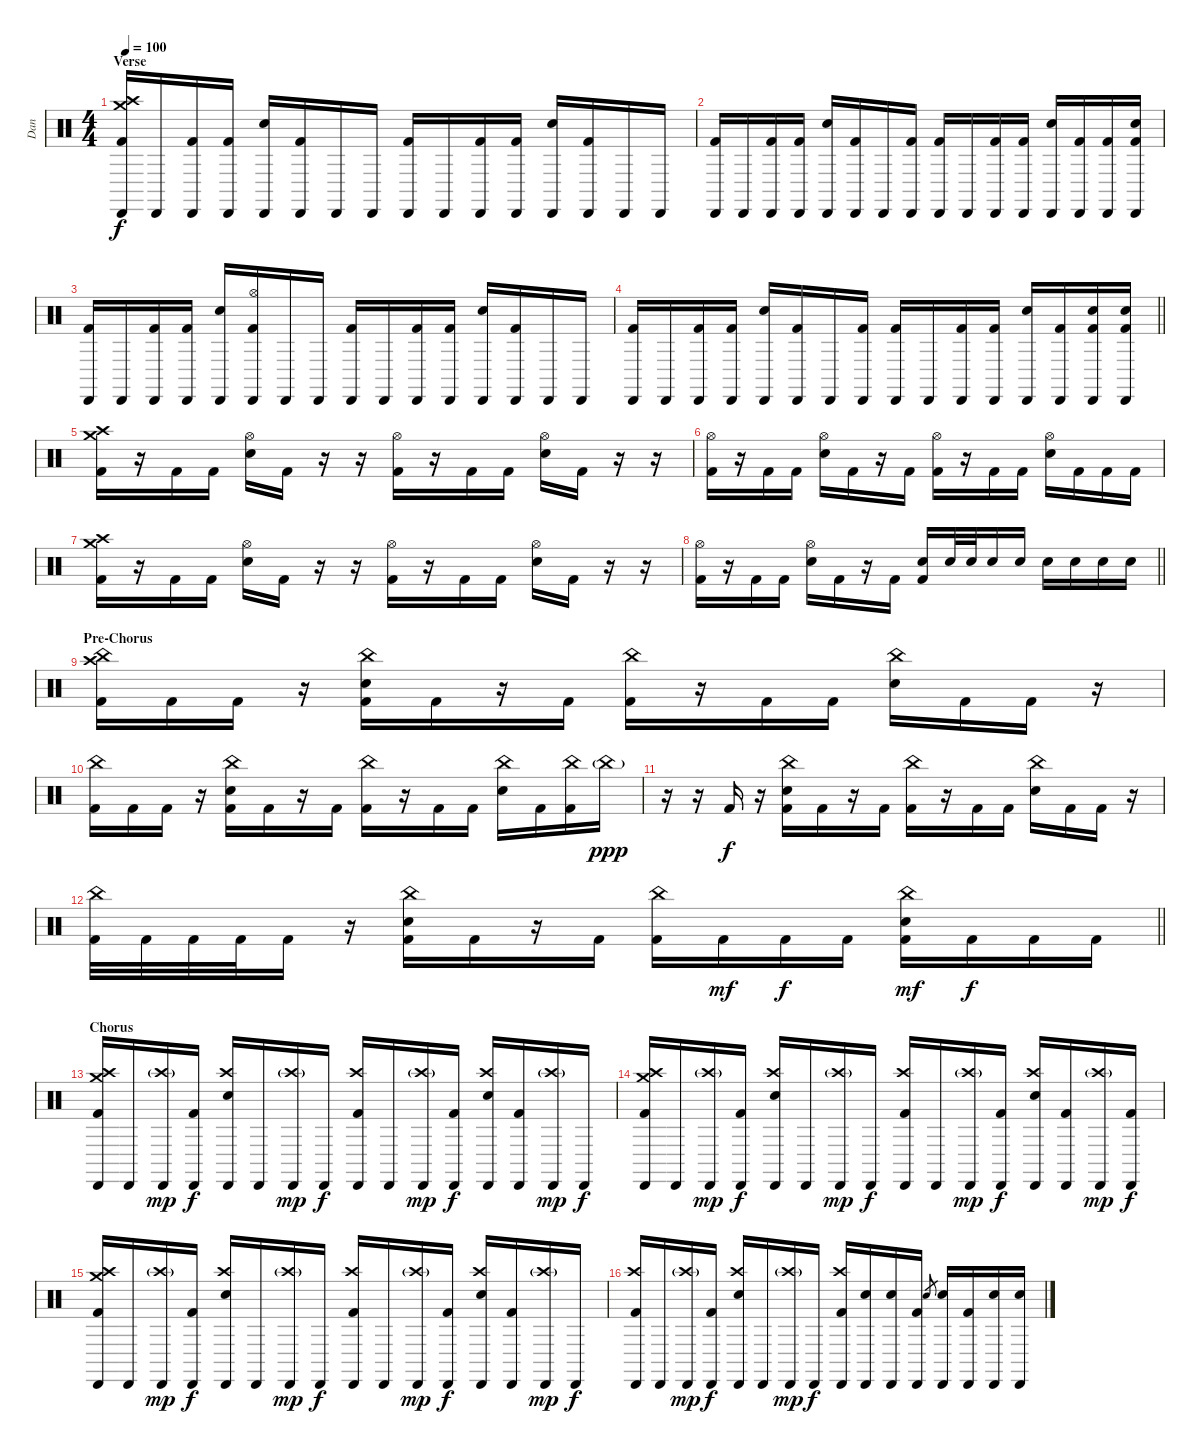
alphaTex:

\track ("Dan" "Dan") {instrument percussion}
\staff {score}
\articulation defaults
\ts (4 4)
\section ("" "Verse")
\tempo 100
\clef neutral
\ks c
("Cabasa (hit)" "Crash medium (hit)" "Crash high (hit)" "Kick (hit) 2").16{dy f} "Cabasa (hit)".16 ("Cabasa (hit)" "Kick (hit) 2").16 ("Cabasa (hit)" "Kick (hit) 2").16 ("Cabasa (hit)" "Snare (hit) 2").16 ("Cabasa (hit)" "Kick (hit) 2").16 "Cabasa (hit)".16 "Cabasa (hit)".16 ("Cabasa (hit)" "Kick (hit) 2").16 "Cabasa (hit)".16 ("Cabasa (hit)" "Kick (hit) 2").16 ("Cabasa (hit)" "Kick (hit) 2").16 ("Cabasa (hit)" "Snare (hit) 2").16 ("Cabasa (hit)" "Kick (hit) 2").16 "Cabasa (hit)".16 "Cabasa (hit)".16 |
("Cabasa (hit)" "Kick (hit) 2").16 "Cabasa (hit)".16 ("Cabasa (hit)" "Kick (hit) 2").16 ("Cabasa (hit)" "Kick (hit) 2").16 ("Cabasa (hit)" "Snare (hit) 2").16 ("Cabasa (hit)" "Kick (hit) 2").16 "Cabasa (hit)".16 ("Cabasa (hit)" "Kick (hit) 2").16 ("Cabasa (hit)" "Kick (hit) 2").16 "Cabasa (hit)".16 ("Cabasa (hit)" "Kick (hit) 2").16 ("Cabasa (hit)" "Kick (hit) 2").16 ("Cabasa (hit)" "Snare (hit) 2").16 ("Cabasa (hit)" "Kick (hit) 2").16 ("Cabasa (hit)" "Kick (hit) 2").16 ("Cabasa (hit)" "Snare (hit) 2" "Kick (hit) 2").16 |
("Cabasa (hit)" "Kick (hit) 2").16 "Cabasa (hit)".16 ("Cabasa (hit)" "Kick (hit) 2").16 ("Cabasa (hit)" "Kick (hit) 2").16 ("Cabasa (hit)" "Snare (hit) 2").16 ("Cabasa (hit)" "Hi-Hat (open)" "Kick (hit) 2").16 "Cabasa (hit)".16 "Cabasa (hit)".16 ("Cabasa (hit)" "Kick (hit) 2").16 "Cabasa (hit)".16 ("Cabasa (hit)" "Kick (hit) 2").16 ("Cabasa (hit)" "Kick (hit) 2").16 ("Cabasa (hit)" "Snare (hit) 2").16 ("Cabasa (hit)" "Kick (hit) 2").16 "Cabasa (hit)".16 "Cabasa (hit)".16 |
\barLineRight lightlight
("Cabasa (hit)" "Kick (hit) 2").16 "Cabasa (hit)".16 ("Cabasa (hit)" "Kick (hit) 2").16 ("Cabasa (hit)" "Kick (hit) 2").16 ("Cabasa (hit)" "Snare (hit) 2").16 ("Cabasa (hit)" "Kick (hit) 2").16 "Cabasa (hit)".16 ("Cabasa (hit)" "Kick (hit) 2").16 ("Cabasa (hit)" "Kick (hit) 2").16 "Cabasa (hit)".16 ("Cabasa (hit)" "Kick (hit) 2").16 ("Cabasa (hit)" "Kick (hit) 2").16 ("Cabasa (hit)" "Snare (hit) 2").16 ("Cabasa (hit)" "Kick (hit) 2").16 ("Cabasa (hit)" "Snare (hit) 2" "Kick (hit) 2").16 ("Cabasa (hit)" "Snare (hit) 2" "Kick (hit) 2").16 |
("Crash medium (hit)" "Crash high (hit)" "Kick (hit) 2").16 r.16 "Kick (hit) 2".16 "Kick (hit) 2".16 ("Hi-Hat (open)" "Snare (hit) 2").16 "Kick (hit) 2".16 r.16 r.16 ("Hi-Hat (open)" "Kick (hit) 2").16 r.16 "Kick (hit) 2".16 "Kick (hit) 2".16 ("Hi-Hat (open)" "Snare (hit) 2").16 "Kick (hit) 2".16 r.16 r.16 |
("Hi-Hat (open)" "Kick (hit) 2").16 r.16 "Kick (hit) 2".16 "Kick (hit) 2".16 ("Hi-Hat (open)" "Snare (hit) 2").16 "Kick (hit) 2".16 r.16 "Kick (hit) 2".16 ("Hi-Hat (open)" "Kick (hit) 2").16 r.16 "Kick (hit) 2".16 "Kick (hit) 2".16 ("Hi-Hat (open)" "Snare (hit) 2").16 "Kick (hit) 2".16 "Kick (hit) 2".16 "Kick (hit) 2".16 |
("Crash medium (hit)" "Crash high (hit)" "Kick (hit) 2").16 r.16 "Kick (hit) 2".16 "Kick (hit) 2".16 ("Hi-Hat (open)" "Snare (hit) 2").16 "Kick (hit) 2".16 r.16 r.16 ("Hi-Hat (open)" "Kick (hit) 2").16 r.16 "Kick (hit) 2".16 "Kick (hit) 2".16 ("Hi-Hat (open)" "Snare (hit) 2").16 "Kick (hit) 2".16 r.16 r.16 |
\barLineRight lightlight
("Hi-Hat (open)" "Kick (hit) 2").16 r.16 "Kick (hit) 2".16 "Kick (hit) 2".16 ("Hi-Hat (open)" "Snare (hit) 2").16 "Kick (hit) 2".16 r.16 "Kick (hit) 2".16 ("Snare (hit) 2" "Kick (hit) 2").16 "Snare (hit) 2".32 "Snare (hit) 2".32 "Snare (hit) 2".16 "Snare (hit) 2".16 "Snare (hit) 2".16 "Snare (hit) 2".16 "Snare (hit) 2".16 "Snare (hit) 2".16 |
\section ("" "Pre-Chorus")
("Crash high (hit)" "China (hit)" "Kick (hit) 2").16 "Kick (hit) 2".16 "Kick (hit) 2".16 r.16 ("China (hit)" "Snare (hit) 2" "Kick (hit) 2").16 "Kick (hit) 2".16 r.16 "Kick (hit) 2".16 ("China (hit)" "Kick (hit) 2").16 r.16 "Kick (hit) 2".16 "Kick (hit) 2".16 ("China (hit)" "Snare (hit) 2").16 "Kick (hit) 2".16 "Kick (hit) 2".16 r.16 |
("China (hit)" "Kick (hit) 2").16 "Kick (hit) 2".16 "Kick (hit) 2".16 r.16 ("China (hit)" "Snare (hit) 2" "Kick (hit) 2").16 "Kick (hit) 2".16 r.16 "Kick (hit) 2".16 ("China (hit)" "Kick (hit) 2").16 r.16 "Kick (hit) 2".16 "Kick (hit) 2".16 ("China (hit)" "Snare (hit) 2").16 "Kick (hit) 2".16 ("China (hit)" "Kick (hit) 2").16 "China (hit)"{g}.16{dy ppp} |
r.16 r.16 "Kick (hit) 2".16{dy f} r.16 ("China (hit)" "Snare (hit) 2" "Kick (hit) 2").16 "Kick (hit) 2".16 r.16 "Kick (hit) 2".16 ("China (hit)" "Kick (hit) 2").16 r.16 "Kick (hit) 2".16 "Kick (hit) 2".16 ("China (hit)" "Snare (hit) 2").16 "Kick (hit) 2".16 "Kick (hit) 2".16 r.16 |
\barLineRight lightlight
("China (hit)" "Kick (hit) 2").32 "Kick (hit) 2".32 "Kick (hit) 2".32 "Kick (hit) 2".32 "Kick (hit) 2".16 r.16 ("China (hit)" "Snare (hit) 2" "Kick (hit) 2").16 "Kick (hit) 2".16 r.16 "Kick (hit) 2".16 ("China (hit)" "Kick (hit) 2").16 "Kick (hit) 2".16{dy mf} "Kick (hit) 2".16{dy f} "Kick (hit) 2".16 ("China (hit)" "Snare (hit) 2" "Kick (hit) 2").16{dy mf} "Kick (hit) 2".16{dy f} "Kick (hit) 2".16 "Kick (hit) 2".16 |
\section ("" "Chorus")
("Cabasa (hit)" "Crash high (hit)" "Crash medium (hit)" "Kick (hit) 2").16 "Cabasa (hit)".16 ("Cabasa (hit)" "Crash high (hit)"{g}).16{dy mp} ("Cabasa (hit)" "Kick (hit) 2").16{dy f} ("Cabasa (hit)" "Crash high (hit)" "Snare (hit) 2").16 "Cabasa (hit)".16 ("Cabasa (hit)" "Crash high (hit)"{g}).16{dy mp} "Cabasa (hit)".16{dy f} ("Cabasa (hit)" "Crash high (hit)" "Kick (hit) 2").16 "Cabasa (hit)".16 ("Cabasa (hit)" "Crash high (hit)"{g}).16{dy mp} ("Cabasa (hit)" "Kick (hit) 2").16{dy f} ("Cabasa (hit)" "Crash high (hit)" "Snare (hit) 2").16 ("Cabasa (hit)" "Kick (hit) 2").16 ("Cabasa (hit)" "Crash high (hit)"{g}).16{dy mp} "Cabasa (hit)".16{dy f} |
("Cabasa (hit)" "Crash high (hit)" "Crash medium (hit)" "Kick (hit) 2").16 "Cabasa (hit)".16 ("Cabasa (hit)" "Crash high (hit)"{g}).16{dy mp} ("Cabasa (hit)" "Kick (hit) 2").16{dy f} ("Cabasa (hit)" "Crash high (hit)" "Snare (hit) 2").16 "Cabasa (hit)".16 ("Cabasa (hit)" "Crash high (hit)"{g}).16{dy mp} "Cabasa (hit)".16{dy f} ("Cabasa (hit)" "Crash high (hit)" "Kick (hit) 2").16 "Cabasa (hit)".16 ("Cabasa (hit)" "Crash high (hit)"{g}).16{dy mp} ("Cabasa (hit)" "Kick (hit) 2").16{dy f} ("Cabasa (hit)" "Crash high (hit)" "Snare (hit) 2").16 ("Cabasa (hit)" "Kick (hit) 2").16 ("Cabasa (hit)" "Crash high (hit)"{g}).16{dy mp} ("Cabasa (hit)" "Kick (hit) 2").16{dy f} |
("Cabasa (hit)" "Crash high (hit)" "Crash medium (hit)" "Kick (hit) 2").16 "Cabasa (hit)".16 ("Cabasa (hit)" "Crash high (hit)"{g}).16{dy mp} ("Cabasa (hit)" "Kick (hit) 2").16{dy f} ("Cabasa (hit)" "Crash high (hit)" "Snare (hit) 2").16 "Cabasa (hit)".16 ("Cabasa (hit)" "Crash high (hit)"{g}).16{dy mp} "Cabasa (hit)".16{dy f} ("Cabasa (hit)" "Crash high (hit)" "Kick (hit) 2").16 "Cabasa (hit)".16 ("Cabasa (hit)" "Crash high (hit)"{g}).16{dy mp} ("Cabasa (hit)" "Kick (hit) 2").16{dy f} ("Cabasa (hit)" "Crash high (hit)" "Snare (hit) 2").16 ("Cabasa (hit)" "Kick (hit) 2").16 ("Cabasa (hit)" "Crash high (hit)"{g}).16{dy mp} "Cabasa (hit)".16{dy f} |
("Cabasa (hit)" "Crash high (hit)" "Kick (hit) 2").16 "Cabasa (hit)".16 ("Cabasa (hit)" "Crash high (hit)"{g}).16{dy mp} ("Cabasa (hit)" "Kick (hit) 2").16{dy f} ("Cabasa (hit)" "Crash high (hit)" "Snare (hit) 2").16 "Cabasa (hit)".16 ("Cabasa (hit)" "Crash high (hit)"{g}).16{dy mp} "Cabasa (hit)".16{dy f} ("Cabasa (hit)" "Crash high (hit)" "Kick (hit) 2").16 ("Cabasa (hit)" "Snare (hit) 2").16 ("Cabasa (hit)" "Snare (hit) 2").16 ("Cabasa (hit)" "Kick (hit) 2").16 "Snare (hit) 2".8{gr} ("Cabasa (hit)" "Snare (hit) 2").16 ("Cabasa (hit)" "Kick (hit) 2").16 ("Cabasa (hit)" "Snare (hit) 2").16 ("Cabasa (hit)" "Snare (hit) 2").16
